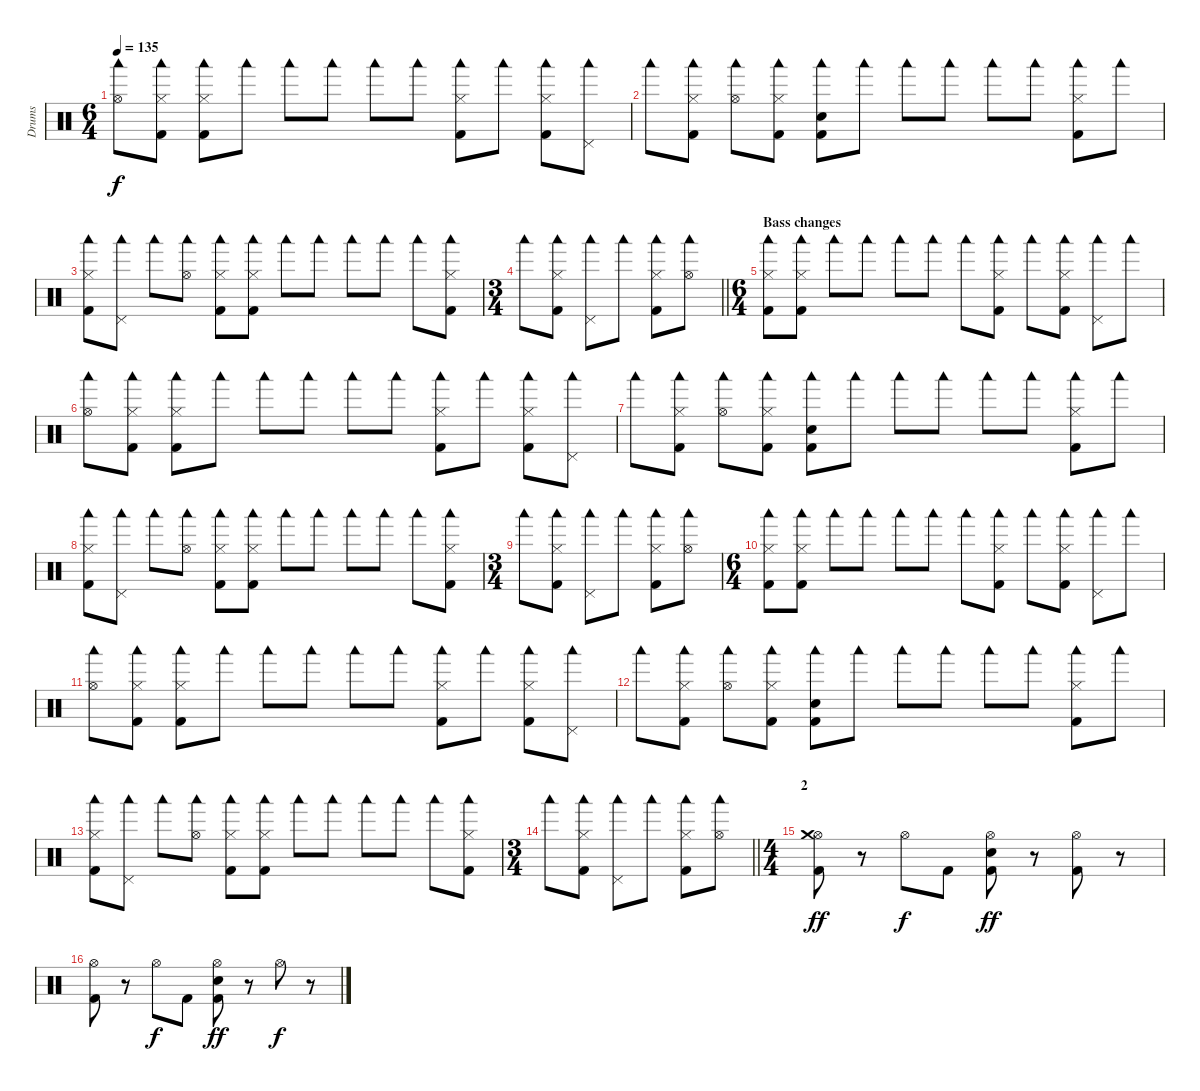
\track ("Drums" "Drums") {instrument percussion}
\staff {score}
\articulation defaults
\ts (6 4)
\tempo 135
\clef neutral
\ks c
("Hi-Hat (open)" "Woodblock low (hit)").8{dy f} ("Hi-Hat (closed)" "Woodblock low (hit)" "Kick (hit) 2").8 ("Hi-Hat (closed)" "Woodblock low (hit)" "Kick (hit) 2").8 "Woodblock low (hit)".8 "Woodblock low (hit)".8 "Woodblock low (hit)".8 "Woodblock low (hit)".8 "Woodblock low (hit)".8 ("Hi-Hat (closed)" "Woodblock low (hit)" "Kick (hit) 2").8 "Woodblock low (hit)".8 ("Hi-Hat (closed)" "Woodblock low (hit)" "Kick (hit) 2").8 ("Pedal Hi-Hat (hit)" "Woodblock low (hit)").8 |
"Woodblock low (hit)".8 ("Hi-Hat (closed)" "Woodblock low (hit)" "Kick (hit) 2").8 ("Hi-Hat (open)" "Woodblock low (hit)").8 ("Hi-Hat (closed)" "Woodblock low (hit)" "Kick (hit) 2").8 ("Snare (hit)" "Woodblock low (hit)" "Kick (hit) 2").8 "Woodblock low (hit)".8 "Woodblock low (hit)".8 "Woodblock low (hit)".8 "Woodblock low (hit)".8 "Woodblock low (hit)".8 ("Hi-Hat (closed)" "Woodblock low (hit)" "Kick (hit) 2").8 "Woodblock low (hit)".8 |
("Hi-Hat (closed)" "Woodblock low (hit)" "Kick (hit) 2").8 ("Pedal Hi-Hat (hit)" "Woodblock low (hit)").8 "Woodblock low (hit)".8 ("Hi-Hat (open)" "Woodblock low (hit)").8 ("Hi-Hat (closed)" "Woodblock low (hit)" "Kick (hit) 2").8 ("Hi-Hat (closed)" "Woodblock low (hit)" "Kick (hit) 2").8 "Woodblock low (hit)".8 "Woodblock low (hit)".8 "Woodblock low (hit)".8 "Woodblock low (hit)".8 "Woodblock low (hit)".8 ("Hi-Hat (closed)" "Woodblock low (hit)" "Kick (hit) 2").8 |
\ts (3 4)
\barLineRight lightlight "Woodblock low (hit)".8
("Hi-Hat (closed)" "Woodblock low (hit)" "Kick (hit) 2").8 ("Pedal Hi-Hat (hit)" "Woodblock low (hit)").8 "Woodblock low (hit)".8 ("Hi-Hat (closed)" "Woodblock low (hit)" "Kick (hit) 2").8 ("Hi-Hat (open)" "Woodblock low (hit)").8 |
\ts (6 4)
\section ("" "Bass changes")
("Hi-Hat (closed)" "Woodblock low (hit)" "Kick (hit) 2").8 ("Hi-Hat (closed)" "Woodblock low (hit)" "Kick (hit) 2").8 "Woodblock low (hit)".8 "Woodblock low (hit)".8 "Woodblock low (hit)".8 "Woodblock low (hit)".8 "Woodblock low (hit)".8 ("Hi-Hat (closed)" "Woodblock low (hit)" "Kick (hit) 2").8 "Woodblock low (hit)".8 ("Hi-Hat (closed)" "Woodblock low (hit)" "Kick (hit) 2").8 ("Pedal Hi-Hat (hit)" "Woodblock low (hit)").8 "Woodblock low (hit)".8 |
("Hi-Hat (open)" "Woodblock low (hit)").8 ("Hi-Hat (closed)" "Woodblock low (hit)" "Kick (hit) 2").8 ("Hi-Hat (closed)" "Woodblock low (hit)" "Kick (hit) 2").8 "Woodblock low (hit)".8 "Woodblock low (hit)".8 "Woodblock low (hit)".8 "Woodblock low (hit)".8 "Woodblock low (hit)".8 ("Hi-Hat (closed)" "Woodblock low (hit)" "Kick (hit) 2").8 "Woodblock low (hit)".8 ("Hi-Hat (closed)" "Woodblock low (hit)" "Kick (hit) 2").8 ("Pedal Hi-Hat (hit)" "Woodblock low (hit)").8 |
"Woodblock low (hit)".8 ("Hi-Hat (closed)" "Woodblock low (hit)" "Kick (hit) 2").8 ("Hi-Hat (open)" "Woodblock low (hit)").8 ("Hi-Hat (closed)" "Woodblock low (hit)" "Kick (hit) 2").8 ("Snare (hit)" "Woodblock low (hit)" "Kick (hit) 2").8 "Woodblock low (hit)".8 "Woodblock low (hit)".8 "Woodblock low (hit)".8 "Woodblock low (hit)".8 "Woodblock low (hit)".8 ("Hi-Hat (closed)" "Woodblock low (hit)" "Kick (hit) 2").8 "Woodblock low (hit)".8 |
("Hi-Hat (closed)" "Woodblock low (hit)" "Kick (hit) 2").8 ("Pedal Hi-Hat (hit)" "Woodblock low (hit)").8 "Woodblock low (hit)".8 ("Hi-Hat (open)" "Woodblock low (hit)").8 ("Hi-Hat (closed)" "Woodblock low (hit)" "Kick (hit) 2").8 ("Hi-Hat (closed)" "Woodblock low (hit)" "Kick (hit) 2").8 "Woodblock low (hit)".8 "Woodblock low (hit)".8 "Woodblock low (hit)".8 "Woodblock low (hit)".8 "Woodblock low (hit)".8 ("Hi-Hat (closed)" "Woodblock low (hit)" "Kick (hit) 2").8 |
\ts (3 4)
"Woodblock low (hit)".8 ("Hi-Hat (closed)" "Woodblock low (hit)" "Kick (hit) 2").8 ("Pedal Hi-Hat (hit)" "Woodblock low (hit)").8 "Woodblock low (hit)".8 ("Hi-Hat (closed)" "Woodblock low (hit)" "Kick (hit) 2").8 ("Hi-Hat (open)" "Woodblock low (hit)").8 |
\ts (6 4)
("Hi-Hat (closed)" "Woodblock low (hit)" "Kick (hit) 2").8 ("Hi-Hat (closed)" "Woodblock low (hit)" "Kick (hit) 2").8 "Woodblock low (hit)".8 "Woodblock low (hit)".8 "Woodblock low (hit)".8 "Woodblock low (hit)".8 "Woodblock low (hit)".8 ("Hi-Hat (closed)" "Woodblock low (hit)" "Kick (hit) 2").8 "Woodblock low (hit)".8 ("Hi-Hat (closed)" "Woodblock low (hit)" "Kick (hit) 2").8 ("Pedal Hi-Hat (hit)" "Woodblock low (hit)").8 "Woodblock low (hit)".8 |
("Hi-Hat (open)" "Woodblock low (hit)").8 ("Hi-Hat (closed)" "Woodblock low (hit)" "Kick (hit) 2").8 ("Hi-Hat (closed)" "Woodblock low (hit)" "Kick (hit) 2").8 "Woodblock low (hit)".8 "Woodblock low (hit)".8 "Woodblock low (hit)".8 "Woodblock low (hit)".8 "Woodblock low (hit)".8 ("Hi-Hat (closed)" "Woodblock low (hit)" "Kick (hit) 2").8 "Woodblock low (hit)".8 ("Hi-Hat (closed)" "Woodblock low (hit)" "Kick (hit) 2").8 ("Pedal Hi-Hat (hit)" "Woodblock low (hit)").8 |
"Woodblock low (hit)".8 ("Hi-Hat (closed)" "Woodblock low (hit)" "Kick (hit) 2").8 ("Hi-Hat (open)" "Woodblock low (hit)").8 ("Hi-Hat (closed)" "Woodblock low (hit)" "Kick (hit) 2").8 ("Snare (hit)" "Woodblock low (hit)" "Kick (hit) 2").8 "Woodblock low (hit)".8 "Woodblock low (hit)".8 "Woodblock low (hit)".8 "Woodblock low (hit)".8 "Woodblock low (hit)".8 ("Hi-Hat (closed)" "Woodblock low (hit)" "Kick (hit) 2").8 "Woodblock low (hit)".8 |
("Hi-Hat (closed)" "Woodblock low (hit)" "Kick (hit) 2").8 ("Pedal Hi-Hat (hit)" "Woodblock low (hit)").8 "Woodblock low (hit)".8 ("Hi-Hat (open)" "Woodblock low (hit)").8 ("Hi-Hat (closed)" "Woodblock low (hit)" "Kick (hit) 2").8 ("Hi-Hat (closed)" "Woodblock low (hit)" "Kick (hit) 2").8 "Woodblock low (hit)".8 "Woodblock low (hit)".8 "Woodblock low (hit)".8 "Woodblock low (hit)".8 "Woodblock low (hit)".8 ("Hi-Hat (closed)" "Woodblock low (hit)" "Kick (hit) 2").8 |
\ts (3 4)
\barLineRight lightlight "Woodblock low (hit)".8
("Hi-Hat (closed)" "Woodblock low (hit)" "Kick (hit) 2").8 ("Pedal Hi-Hat (hit)" "Woodblock low (hit)").8 "Woodblock low (hit)".8 ("Hi-Hat (closed)" "Woodblock low (hit)" "Kick (hit) 2").8 ("Hi-Hat (open)" "Woodblock low (hit)").8 |
\ts (4 4)
\section ("" "2")
("Hi-Hat (open)" "Crash medium (hit)" "Kick (hit) 2").8{dy ff} r.8 "Hi-Hat (open)".8{dy f} "Kick (hit) 2".8 ("Hi-Hat (open)" "Snare (hit) 2" "Kick (hit) 2").8{dy ff} r.8 ("Hi-Hat (open)" "Kick (hit) 2").8 r.8 |
("Hi-Hat (open)" "Kick (hit) 2").8 r.8 "Hi-Hat (open)".8{dy f} "Kick (hit) 2".8 ("Hi-Hat (open)" "Snare (hit) 2" "Kick (hit) 2").8{dy ff} r.8 "Hi-Hat (open)".8{dy f} r.8
